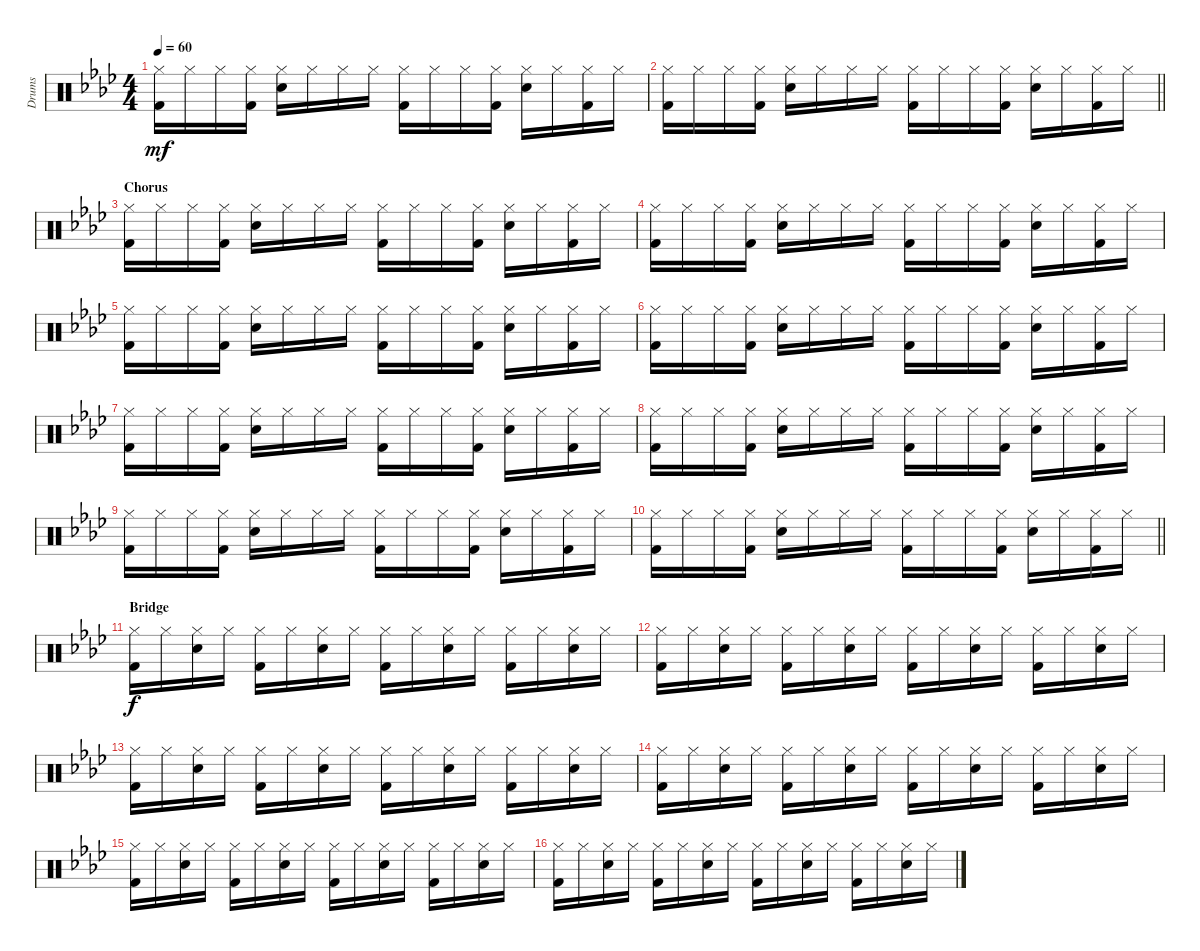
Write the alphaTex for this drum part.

\track ("Drums" "Drums") {instrument percussion}
\staff {score}
\articulation defaults
\ts (4 4)
\tempo 60
\clef neutral
\ks fminor
("Hi-Hat (closed)" "Kick (hit) 2").16{dy mf} "Hi-Hat (closed)".16 "Hi-Hat (closed)".16 ("Hi-Hat (closed)" "Kick (hit) 2").16 ("Hi-Hat (closed)" "Snare (hit) 2").16 "Hi-Hat (closed)".16 "Hi-Hat (closed)".16 "Hi-Hat (closed)".16 ("Hi-Hat (closed)" "Kick (hit) 2").16 "Hi-Hat (closed)".16 "Hi-Hat (closed)".16 ("Hi-Hat (closed)" "Kick (hit) 2").16 ("Hi-Hat (closed)" "Snare (hit) 2").16 "Hi-Hat (closed)".16 ("Hi-Hat (closed)" "Kick (hit) 2").16 "Hi-Hat (closed)".16 |
\barLineRight lightlight
("Hi-Hat (closed)" "Kick (hit) 2").16 "Hi-Hat (closed)".16 "Hi-Hat (closed)".16 ("Hi-Hat (closed)" "Kick (hit) 2").16 ("Hi-Hat (closed)" "Snare (hit) 2").16 "Hi-Hat (closed)".16 "Hi-Hat (closed)".16 "Hi-Hat (closed)".16 ("Hi-Hat (closed)" "Kick (hit) 2").16 "Hi-Hat (closed)".16 "Hi-Hat (closed)".16 ("Hi-Hat (closed)" "Kick (hit) 2").16 ("Hi-Hat (closed)" "Snare (hit) 2").16 "Hi-Hat (closed)".16 ("Hi-Hat (closed)" "Kick (hit) 2").16 "Hi-Hat (closed)".16 |
\section ("" "Chorus")
("Hi-Hat (closed)" "Kick (hit) 2").16 "Hi-Hat (closed)".16 "Hi-Hat (closed)".16 ("Hi-Hat (closed)" "Kick (hit) 2").16 ("Hi-Hat (closed)" "Snare (hit) 2").16 "Hi-Hat (closed)".16 "Hi-Hat (closed)".16 "Hi-Hat (closed)".16 ("Hi-Hat (closed)" "Kick (hit) 2").16 "Hi-Hat (closed)".16 "Hi-Hat (closed)".16 ("Hi-Hat (closed)" "Kick (hit) 2").16 ("Hi-Hat (closed)" "Snare (hit) 2").16 "Hi-Hat (closed)".16 ("Hi-Hat (closed)" "Kick (hit) 2").16 "Hi-Hat (closed)".16 |
("Hi-Hat (closed)" "Kick (hit) 2").16 "Hi-Hat (closed)".16 "Hi-Hat (closed)".16 ("Hi-Hat (closed)" "Kick (hit) 2").16 ("Hi-Hat (closed)" "Snare (hit) 2").16 "Hi-Hat (closed)".16 "Hi-Hat (closed)".16 "Hi-Hat (closed)".16 ("Hi-Hat (closed)" "Kick (hit) 2").16 "Hi-Hat (closed)".16 "Hi-Hat (closed)".16 ("Hi-Hat (closed)" "Kick (hit) 2").16 ("Hi-Hat (closed)" "Snare (hit) 2").16 "Hi-Hat (closed)".16 ("Hi-Hat (closed)" "Kick (hit) 2").16 "Hi-Hat (closed)".16 |
("Hi-Hat (closed)" "Kick (hit) 2").16 "Hi-Hat (closed)".16 "Hi-Hat (closed)".16 ("Hi-Hat (closed)" "Kick (hit) 2").16 ("Hi-Hat (closed)" "Snare (hit) 2").16 "Hi-Hat (closed)".16 "Hi-Hat (closed)".16 "Hi-Hat (closed)".16 ("Hi-Hat (closed)" "Kick (hit) 2").16 "Hi-Hat (closed)".16 "Hi-Hat (closed)".16 ("Hi-Hat (closed)" "Kick (hit) 2").16 ("Hi-Hat (closed)" "Snare (hit) 2").16 "Hi-Hat (closed)".16 ("Hi-Hat (closed)" "Kick (hit) 2").16 "Hi-Hat (closed)".16 |
("Hi-Hat (closed)" "Kick (hit) 2").16 "Hi-Hat (closed)".16 "Hi-Hat (closed)".16 ("Hi-Hat (closed)" "Kick (hit) 2").16 ("Hi-Hat (closed)" "Snare (hit) 2").16 "Hi-Hat (closed)".16 "Hi-Hat (closed)".16 "Hi-Hat (closed)".16 ("Hi-Hat (closed)" "Kick (hit) 2").16 "Hi-Hat (closed)".16 "Hi-Hat (closed)".16 ("Hi-Hat (closed)" "Kick (hit) 2").16 ("Hi-Hat (closed)" "Snare (hit) 2").16 "Hi-Hat (closed)".16 ("Hi-Hat (closed)" "Kick (hit) 2").16 "Hi-Hat (closed)".16 |
("Hi-Hat (closed)" "Kick (hit) 2").16 "Hi-Hat (closed)".16 "Hi-Hat (closed)".16 ("Hi-Hat (closed)" "Kick (hit) 2").16 ("Hi-Hat (closed)" "Snare (hit) 2").16 "Hi-Hat (closed)".16 "Hi-Hat (closed)".16 "Hi-Hat (closed)".16 ("Hi-Hat (closed)" "Kick (hit) 2").16 "Hi-Hat (closed)".16 "Hi-Hat (closed)".16 ("Hi-Hat (closed)" "Kick (hit) 2").16 ("Hi-Hat (closed)" "Snare (hit) 2").16 "Hi-Hat (closed)".16 ("Hi-Hat (closed)" "Kick (hit) 2").16 "Hi-Hat (closed)".16 |
("Hi-Hat (closed)" "Kick (hit) 2").16 "Hi-Hat (closed)".16 "Hi-Hat (closed)".16 ("Hi-Hat (closed)" "Kick (hit) 2").16 ("Hi-Hat (closed)" "Snare (hit) 2").16 "Hi-Hat (closed)".16 "Hi-Hat (closed)".16 "Hi-Hat (closed)".16 ("Hi-Hat (closed)" "Kick (hit) 2").16 "Hi-Hat (closed)".16 "Hi-Hat (closed)".16 ("Hi-Hat (closed)" "Kick (hit) 2").16 ("Hi-Hat (closed)" "Snare (hit) 2").16 "Hi-Hat (closed)".16 ("Hi-Hat (closed)" "Kick (hit) 2").16 "Hi-Hat (closed)".16 |
("Hi-Hat (closed)" "Kick (hit) 2").16 "Hi-Hat (closed)".16 "Hi-Hat (closed)".16 ("Hi-Hat (closed)" "Kick (hit) 2").16 ("Hi-Hat (closed)" "Snare (hit) 2").16 "Hi-Hat (closed)".16 "Hi-Hat (closed)".16 "Hi-Hat (closed)".16 ("Hi-Hat (closed)" "Kick (hit) 2").16 "Hi-Hat (closed)".16 "Hi-Hat (closed)".16 ("Hi-Hat (closed)" "Kick (hit) 2").16 ("Hi-Hat (closed)" "Snare (hit) 2").16 "Hi-Hat (closed)".16 ("Hi-Hat (closed)" "Kick (hit) 2").16 "Hi-Hat (closed)".16 |
\barLineRight lightlight
("Hi-Hat (closed)" "Kick (hit) 2").16 "Hi-Hat (closed)".16 "Hi-Hat (closed)".16 ("Hi-Hat (closed)" "Kick (hit) 2").16 ("Hi-Hat (closed)" "Snare (hit) 2").16 "Hi-Hat (closed)".16 "Hi-Hat (closed)".16 "Hi-Hat (closed)".16 ("Hi-Hat (closed)" "Kick (hit) 2").16 "Hi-Hat (closed)".16 "Hi-Hat (closed)".16 ("Hi-Hat (closed)" "Kick (hit) 2").16 ("Hi-Hat (closed)" "Snare (hit) 2").16 "Hi-Hat (closed)".16 ("Hi-Hat (closed)" "Kick (hit) 2").16 "Hi-Hat (closed)".16 |
\section ("" "Bridge")
("Hi-Hat (closed)" "Kick (hit) 2").16{dy f} "Hi-Hat (closed)".16 ("Hi-Hat (closed)" "Snare (hit) 2").16 "Hi-Hat (closed)".16 ("Hi-Hat (closed)" "Kick (hit) 2").16 "Hi-Hat (closed)".16 ("Hi-Hat (closed)" "Snare (hit) 2").16 "Hi-Hat (closed)".16 ("Hi-Hat (closed)" "Kick (hit) 2").16 "Hi-Hat (closed)".16 ("Hi-Hat (closed)" "Snare (hit) 2").16 "Hi-Hat (closed)".16 ("Hi-Hat (closed)" "Kick (hit) 2").16 "Hi-Hat (closed)".16 ("Hi-Hat (closed)" "Snare (hit) 2").16 "Hi-Hat (closed)".16 |
("Hi-Hat (closed)" "Kick (hit) 2").16 "Hi-Hat (closed)".16 ("Hi-Hat (closed)" "Snare (hit) 2").16 "Hi-Hat (closed)".16 ("Hi-Hat (closed)" "Kick (hit) 2").16 "Hi-Hat (closed)".16 ("Hi-Hat (closed)" "Snare (hit) 2").16 "Hi-Hat (closed)".16 ("Hi-Hat (closed)" "Kick (hit) 2").16 "Hi-Hat (closed)".16 ("Hi-Hat (closed)" "Snare (hit) 2").16 "Hi-Hat (closed)".16 ("Hi-Hat (closed)" "Kick (hit) 2").16 "Hi-Hat (closed)".16 ("Hi-Hat (closed)" "Snare (hit) 2").16 "Hi-Hat (closed)".16 |
("Hi-Hat (closed)" "Kick (hit) 2").16 "Hi-Hat (closed)".16 ("Hi-Hat (closed)" "Snare (hit) 2").16 "Hi-Hat (closed)".16 ("Hi-Hat (closed)" "Kick (hit) 2").16 "Hi-Hat (closed)".16 ("Hi-Hat (closed)" "Snare (hit) 2").16 "Hi-Hat (closed)".16 ("Hi-Hat (closed)" "Kick (hit) 2").16 "Hi-Hat (closed)".16 ("Hi-Hat (closed)" "Snare (hit) 2").16 "Hi-Hat (closed)".16 ("Hi-Hat (closed)" "Kick (hit) 2").16 "Hi-Hat (closed)".16 ("Hi-Hat (closed)" "Snare (hit) 2").16 "Hi-Hat (closed)".16 |
("Hi-Hat (closed)" "Kick (hit) 2").16 "Hi-Hat (closed)".16 ("Hi-Hat (closed)" "Snare (hit) 2").16 "Hi-Hat (closed)".16 ("Hi-Hat (closed)" "Kick (hit) 2").16 "Hi-Hat (closed)".16 ("Hi-Hat (closed)" "Snare (hit) 2").16 "Hi-Hat (closed)".16 ("Hi-Hat (closed)" "Kick (hit) 2").16 "Hi-Hat (closed)".16 ("Hi-Hat (closed)" "Snare (hit) 2").16 "Hi-Hat (closed)".16 ("Hi-Hat (closed)" "Kick (hit) 2").16 "Hi-Hat (closed)".16 ("Hi-Hat (closed)" "Snare (hit) 2").16 "Hi-Hat (closed)".16 |
("Hi-Hat (closed)" "Kick (hit) 2").16 "Hi-Hat (closed)".16 ("Hi-Hat (closed)" "Snare (hit) 2").16 "Hi-Hat (closed)".16 ("Hi-Hat (closed)" "Kick (hit) 2").16 "Hi-Hat (closed)".16 ("Hi-Hat (closed)" "Snare (hit) 2").16 "Hi-Hat (closed)".16 ("Hi-Hat (closed)" "Kick (hit) 2").16 "Hi-Hat (closed)".16 ("Hi-Hat (closed)" "Snare (hit) 2").16 "Hi-Hat (closed)".16 ("Hi-Hat (closed)" "Kick (hit) 2").16 "Hi-Hat (closed)".16 ("Hi-Hat (closed)" "Snare (hit) 2").16 "Hi-Hat (closed)".16 |
("Hi-Hat (closed)" "Kick (hit) 2").16 "Hi-Hat (closed)".16 ("Hi-Hat (closed)" "Snare (hit) 2").16 "Hi-Hat (closed)".16 ("Hi-Hat (closed)" "Kick (hit) 2").16 "Hi-Hat (closed)".16 ("Hi-Hat (closed)" "Snare (hit) 2").16 "Hi-Hat (closed)".16 ("Hi-Hat (closed)" "Kick (hit) 2").16 "Hi-Hat (closed)".16 ("Hi-Hat (closed)" "Snare (hit) 2").16 "Hi-Hat (closed)".16 ("Hi-Hat (closed)" "Kick (hit) 2").16 "Hi-Hat (closed)".16 ("Hi-Hat (closed)" "Snare (hit) 2").16 "Hi-Hat (closed)".16
